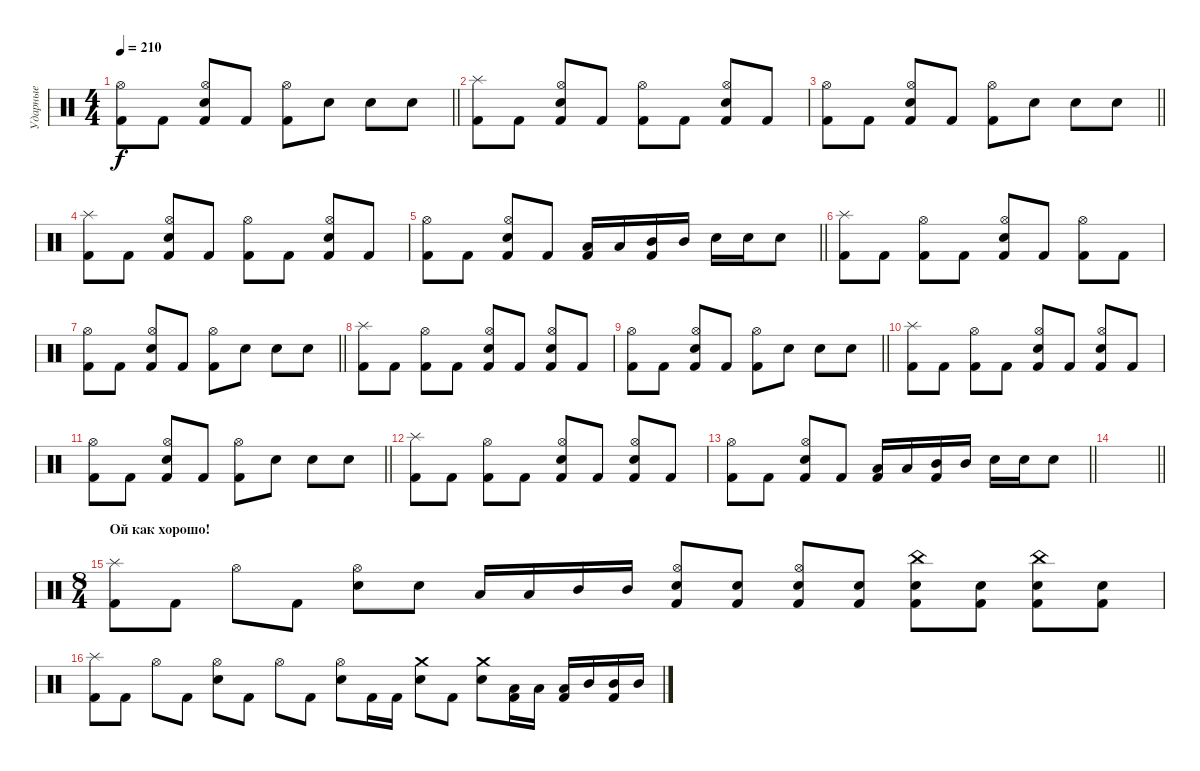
\track ("Ударные" "Ударные") {mute instrument percussion}
\staff {score}
\articulation defaults
\ts (4 4)
\tempo 210
\clef neutral
\barLineRight lightlight
\ks c
("Kick (hit) 2" "Hi-Hat (open)").8{dy f} "Kick (hit) 2".8 ("Kick (hit) 2" "Electric Snare (hit)" "Hi-Hat (open)").8 "Kick (hit) 2".8 ("Kick (hit) 2" "Hi-Hat (open)").8 "Electric Snare (hit)".8 "Electric Snare (hit)".8 "Electric Snare (hit)".8 |
("Kick (hit) 2" "Splash (hit)").8 "Kick (hit) 2".8 ("Kick (hit) 2" "Electric Snare (hit)" "Hi-Hat (open)").8 "Kick (hit) 2".8 ("Kick (hit) 2" "Hi-Hat (open)").8 "Kick (hit) 2".8 ("Kick (hit) 2" "Electric Snare (hit)" "Hi-Hat (open)").8 "Kick (hit) 2".8 |
\barLineRight lightlight
("Kick (hit) 2" "Hi-Hat (open)").8 "Kick (hit) 2".8 ("Kick (hit) 2" "Electric Snare (hit)" "Hi-Hat (open)").8 "Kick (hit) 2".8 ("Kick (hit) 2" "Hi-Hat (open)").8 "Electric Snare (hit)".8 "Electric Snare (hit)".8 "Electric Snare (hit)".8 |
("Kick (hit) 2" "Splash (hit)").8 "Kick (hit) 2".8 ("Kick (hit) 2" "Electric Snare (hit)" "Hi-Hat (open)").8 "Kick (hit) 2".8 ("Kick (hit) 2" "Hi-Hat (open)").8 "Kick (hit) 2".8 ("Kick (hit) 2" "Electric Snare (hit)" "Hi-Hat (open)").8 "Kick (hit) 2".8 |
\barLineRight lightlight
("Kick (hit) 2" "Hi-Hat (open)").8 "Kick (hit) 2".8 ("Kick (hit) 2" "Electric Snare (hit)" "Hi-Hat (open)").8 "Kick (hit) 2".8 ("Kick (hit) 2" "Low Tom (hit)").16 "Low Tom (hit)".16 ("Kick (hit) 2" "Mid Tom (hit)").16 "Mid Tom (hit)".16 "Electric Snare (hit)".16 "Electric Snare (hit)".16 "Electric Snare (hit)".8 |
("Kick (hit) 2" "Splash (hit)").8 "Kick (hit) 2".8 ("Kick (hit) 2" "Hi-Hat (open)").8 "Kick (hit) 2".8 ("Kick (hit) 2" "Electric Snare (hit)" "Hi-Hat (open)").8 "Kick (hit) 2".8 ("Kick (hit) 2" "Hi-Hat (open)").8 "Kick (hit) 2".8 |
\barLineRight lightlight
("Kick (hit) 2" "Hi-Hat (open)").8 "Kick (hit) 2".8 ("Kick (hit) 2" "Electric Snare (hit)" "Hi-Hat (open)").8 "Kick (hit) 2".8 ("Kick (hit) 2" "Hi-Hat (open)").8 "Electric Snare (hit)".8 "Electric Snare (hit)".8 "Electric Snare (hit)".8 |
("Kick (hit) 2" "Splash (hit)").8 "Kick (hit) 2".8 ("Kick (hit) 2" "Hi-Hat (open)").8 "Kick (hit) 2".8 ("Kick (hit) 2" "Electric Snare (hit)" "Hi-Hat (open)").8 "Kick (hit) 2".8 ("Kick (hit) 2" "Electric Snare (hit)" "Hi-Hat (open)").8 "Kick (hit) 2".8 |
\barLineRight lightlight
("Kick (hit) 2" "Hi-Hat (open)").8 "Kick (hit) 2".8 ("Kick (hit) 2" "Electric Snare (hit)" "Hi-Hat (open)").8 "Kick (hit) 2".8 ("Kick (hit) 2" "Hi-Hat (open)").8 "Electric Snare (hit)".8 "Electric Snare (hit)".8 "Electric Snare (hit)".8 |
("Kick (hit) 2" "Splash (hit)").8 "Kick (hit) 2".8 ("Kick (hit) 2" "Hi-Hat (open)").8 "Kick (hit) 2".8 ("Kick (hit) 2" "Electric Snare (hit)" "Hi-Hat (open)").8 "Kick (hit) 2".8 ("Kick (hit) 2" "Electric Snare (hit)" "Hi-Hat (open)").8 "Kick (hit) 2".8 |
\barLineRight lightlight
("Kick (hit) 2" "Hi-Hat (open)").8 "Kick (hit) 2".8 ("Kick (hit) 2" "Electric Snare (hit)" "Hi-Hat (open)").8 "Kick (hit) 2".8 ("Kick (hit) 2" "Hi-Hat (open)").8 "Electric Snare (hit)".8 "Electric Snare (hit)".8 "Electric Snare (hit)".8 |
("Kick (hit) 2" "Splash (hit)").8 "Kick (hit) 2".8 ("Kick (hit) 2" "Hi-Hat (open)").8 "Kick (hit) 2".8 ("Kick (hit) 2" "Electric Snare (hit)" "Hi-Hat (open)").8 "Kick (hit) 2".8 ("Kick (hit) 2" "Electric Snare (hit)" "Hi-Hat (open)").8 "Kick (hit) 2".8 |
\barLineRight lightlight
("Kick (hit) 2" "Hi-Hat (open)").8 "Kick (hit) 2".8 ("Kick (hit) 2" "Electric Snare (hit)" "Hi-Hat (open)").8 "Kick (hit) 2".8 ("Kick (hit) 2" "Low Tom (hit)").16 "Low Tom (hit)".16 ("Kick (hit) 2" "Mid Tom (hit)").16 "Mid Tom (hit)".16 "Electric Snare (hit)".16 "Electric Snare (hit)".16 "Electric Snare (hit)".8 |
\barLineRight lightlight
|
\ts (8 4)
\section ("" "Ой как хорошо!")
("Kick (hit) 2" "Splash (hit)").8 "Kick (hit) 2".8 "Hi-Hat (open)".8 "Kick (hit) 2".8 ("Electric Snare (hit)" "Hi-Hat (open)").8 "Electric Snare (hit)".8 "Low Tom (hit)".16 "Low Tom (hit)".16 "Mid Tom (hit)".16 "Mid Tom (hit)".16 ("Kick (hit) 2" "Electric Snare (hit)" "Hi-Hat (open)").8 ("Kick (hit) 2" "Electric Snare (hit)").8 ("Kick (hit) 2" "Electric Snare (hit)" "Hi-Hat (open)").8 ("Kick (hit) 2" "Electric Snare (hit)").8 ("Kick (hit) 2" "Electric Snare (hit)" "China (hit)").8 ("Kick (hit) 2" "Electric Snare (hit)").8 ("Kick (hit) 2" "Electric Snare (hit)" "China (hit)").8 ("Kick (hit) 2" "Electric Snare (hit)").8 |
("Kick (hit) 2" "Splash (hit)").8 "Kick (hit) 2".8 "Hi-Hat (open)".8 "Kick (hit) 2".8 ("Electric Snare (hit)" "Hi-Hat (open)").8 "Kick (hit) 2".8 "Hi-Hat (open)".8 "Kick (hit) 2".8 ("Electric Snare (hit)" "Hi-Hat (open)").8 "Kick (hit) 2".16 "Kick (hit) 2".16 ("Electric Snare (hit)" "Crash medium (hit)").8 "Kick (hit) 2".8 ("Electric Snare (hit)" "Crash medium (hit)").8 ("Low Tom (hit)" "Kick (hit) 2").16 "Low Tom (hit)".16 ("Low Tom (hit)" "Kick (hit) 2").16 "Mid Tom (hit)".16 ("Mid Tom (hit)" "Kick (hit) 2").16 "Mid Tom (hit)".16
